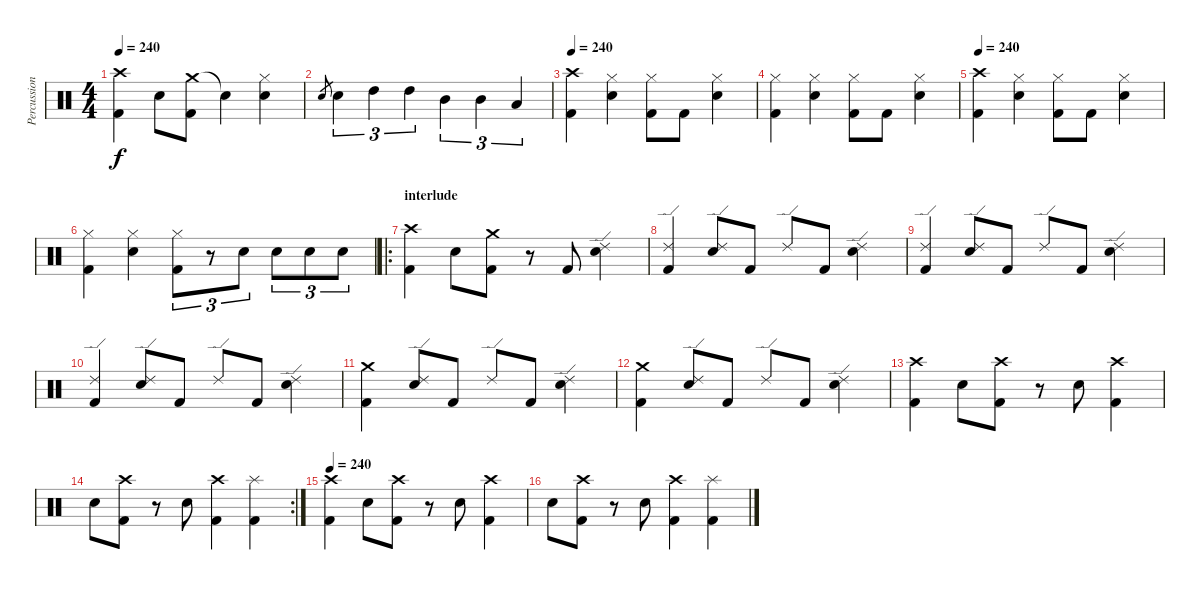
\track ("Percussions" "Percussion") {instrument percussion}
\staff {score}
\articulation defaults
\ts (4 4)
\tempo 240
\clef neutral
\ks c
("Crash high (hit)" "Kick (hit) 2").4{dy f} "Electric Snare (hit)".8 ("Crash medium (hit)" "Kick (hit) 2").8 "Snare (hit)"{t}.4 ("Hi-Hat (closed)" "Electric Snare (hit)").4 |
"Electric Snare (hit)".8{gr} "Electric Snare (hit)".4{tu (3 2)} "High Tom (hit)".4{tu (3 2)} "High Tom (hit)".4{tu (3 2)} "Mid Tom (hit)".4{tu (3 2)} "Mid Tom (hit)".4{tu (3 2)} "Low Tom (hit)".4{tu (3 2)} |
\tempo 240
("Crash high (hit)" "Kick (hit) 2").4 ("Hi-Hat (closed)" "Electric Snare (hit)").4 ("Hi-Hat (closed)" "Kick (hit) 2").8 "Kick (hit) 2".8 ("Hi-Hat (closed)" "Electric Snare (hit)").4 |
("Hi-Hat (closed)" "Kick (hit) 2").4 ("Hi-Hat (closed)" "Electric Snare (hit)").4 ("Hi-Hat (closed)" "Kick (hit) 2").8 "Kick (hit) 2".8 ("Hi-Hat (closed)" "Electric Snare (hit)").4 |
\tempo 240
("Crash high (hit)" "Kick (hit) 2").4 ("Hi-Hat (closed)" "Electric Snare (hit)").4 ("Hi-Hat (closed)" "Kick (hit) 2").8 "Kick (hit) 2".8 ("Hi-Hat (closed)" "Electric Snare (hit)").4 |
("Hi-Hat (closed)" "Kick (hit) 2").4 ("Hi-Hat (closed)" "Electric Snare (hit)").4 ("Hi-Hat (closed)" "Kick (hit) 2").8{tu (3 2)} r.8{tu (3 2)} "Electric Snare (hit)".8{tu (3 2)} "Electric Snare (hit)".8{tu (3 2)} "Electric Snare (hit)".8{tu (3 2)} "Electric Snare (hit)".8{tu (3 2)} |
\ro
\section ("" "interlude")
("Crash high (hit)" "Kick (hit) 2").4 "Electric Snare (hit)".8 ("Crash medium (hit)" "Kick (hit) 2").8 r.8 "Kick (hit) 2".8 ("Ride (edge) 2" "Electric Snare (hit)").4 |
("Ride (edge) 2" "Kick (hit) 2").4 ("Ride (edge) 2" "Electric Snare (hit)").8 "Kick (hit) 2".8 "Ride (edge) 2".8 "Kick (hit) 2".8 ("Ride (edge) 2" "Electric Snare (hit)").4 |
("Ride (edge) 2" "Kick (hit) 2").4 ("Ride (edge) 2" "Electric Snare (hit)").8 "Kick (hit) 2".8 "Ride (edge) 2".8 "Kick (hit) 2".8 ("Ride (edge) 2" "Electric Snare (hit)").4 |
("Ride (edge) 2" "Kick (hit) 2").4 ("Ride (edge) 2" "Electric Snare (hit)").8 "Kick (hit) 2".8 "Ride (edge) 2".8 "Kick (hit) 2".8 ("Ride (edge) 2" "Electric Snare (hit)").4 |
("Crash medium (hit)" "Kick (hit) 2").4 ("Ride (edge) 2" "Electric Snare (hit)").8 "Kick (hit) 2".8 "Ride (edge) 2".8 "Kick (hit) 2".8 ("Ride (edge) 2" "Electric Snare (hit)").4 |
("Crash medium (hit)" "Kick (hit) 2").4 ("Ride (edge) 2" "Electric Snare (hit)").8 "Kick (hit) 2".8 "Ride (edge) 2".8 "Kick (hit) 2".8 ("Ride (edge) 2" "Electric Snare (hit)").4 |
("Crash high (hit)" "Kick (hit) 2").4 "Electric Snare (hit)".8 ("Crash high (hit)" "Kick (hit) 2").8 r.8 "Electric Snare (hit)".8 ("Crash high (hit)" "Kick (hit) 2").4 |
\rc 2 "Electric Snare (hit)".8
("Crash high (hit)" "Kick (hit) 2").8 r.8 "Electric Snare (hit)".8 ("Crash high (hit)" "Kick (hit) 2").4 ("Splash (hit)" "Kick (hit) 2").4 |
\tempo 240
("Crash high (hit)" "Kick (hit) 2").4 "Electric Snare (hit)".8 ("Crash high (hit)" "Kick (hit) 2").8 r.8 "Electric Snare (hit)".8 ("Crash high (hit)" "Kick (hit) 2").4 |
"Electric Snare (hit)".8 ("Crash high (hit)" "Kick (hit) 2").8 r.8 "Electric Snare (hit)".8 ("Crash high (hit)" "Kick (hit) 2").4 ("Splash (hit)" "Kick (hit) 2").4
